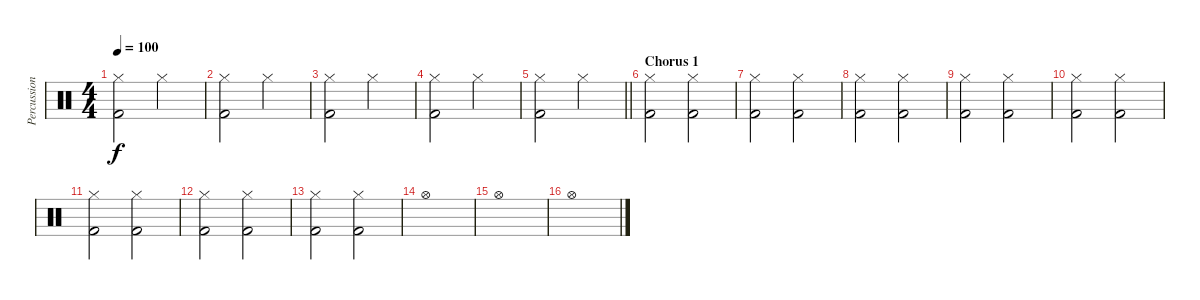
\track ("Percussion" "Percussion") {instrument percussion}
\staff {score}
\articulation defaults
\ts (4 4)
\tempo 100
\clef neutral
\ks c
("Hi-Hat (closed)" "Kick (hit) 2").2{dy f} "Hi-Hat (closed)".2 |
("Hi-Hat (closed)" "Kick (hit) 2").2 "Hi-Hat (closed)".2 |
("Hi-Hat (closed)" "Kick (hit) 2").2 "Hi-Hat (closed)".2 |
("Hi-Hat (closed)" "Kick (hit) 2").2 "Hi-Hat (closed)".2 |
\barLineRight lightlight
("Hi-Hat (closed)" "Kick (hit) 2").2 "Hi-Hat (closed)".2 |
\section ("" "Chorus 1")
("Hi-Hat (closed)" "Kick (hit) 2").2 ("Hi-Hat (closed)" "Kick (hit) 2").2 |
("Hi-Hat (closed)" "Kick (hit) 2").2 ("Hi-Hat (closed)" "Kick (hit) 2").2 |
("Hi-Hat (closed)" "Kick (hit) 2").2 ("Hi-Hat (closed)" "Kick (hit) 2").2 |
("Hi-Hat (closed)" "Kick (hit) 2").2 ("Hi-Hat (closed)" "Kick (hit) 2").2 |
("Hi-Hat (closed)" "Kick (hit) 2").2 ("Hi-Hat (closed)" "Kick (hit) 2").2 |
("Hi-Hat (closed)" "Kick (hit) 2").2 ("Hi-Hat (closed)" "Kick (hit) 2").2 |
("Hi-Hat (closed)" "Kick (hit) 2").2 ("Hi-Hat (closed)" "Kick (hit) 2").2 |
("Hi-Hat (closed)" "Kick (hit) 2").2 ("Hi-Hat (closed)" "Kick (hit) 2").2 |
"Hi-Hat (open)".1 |
"Hi-Hat (open)".1 |
"Hi-Hat (open)".1
